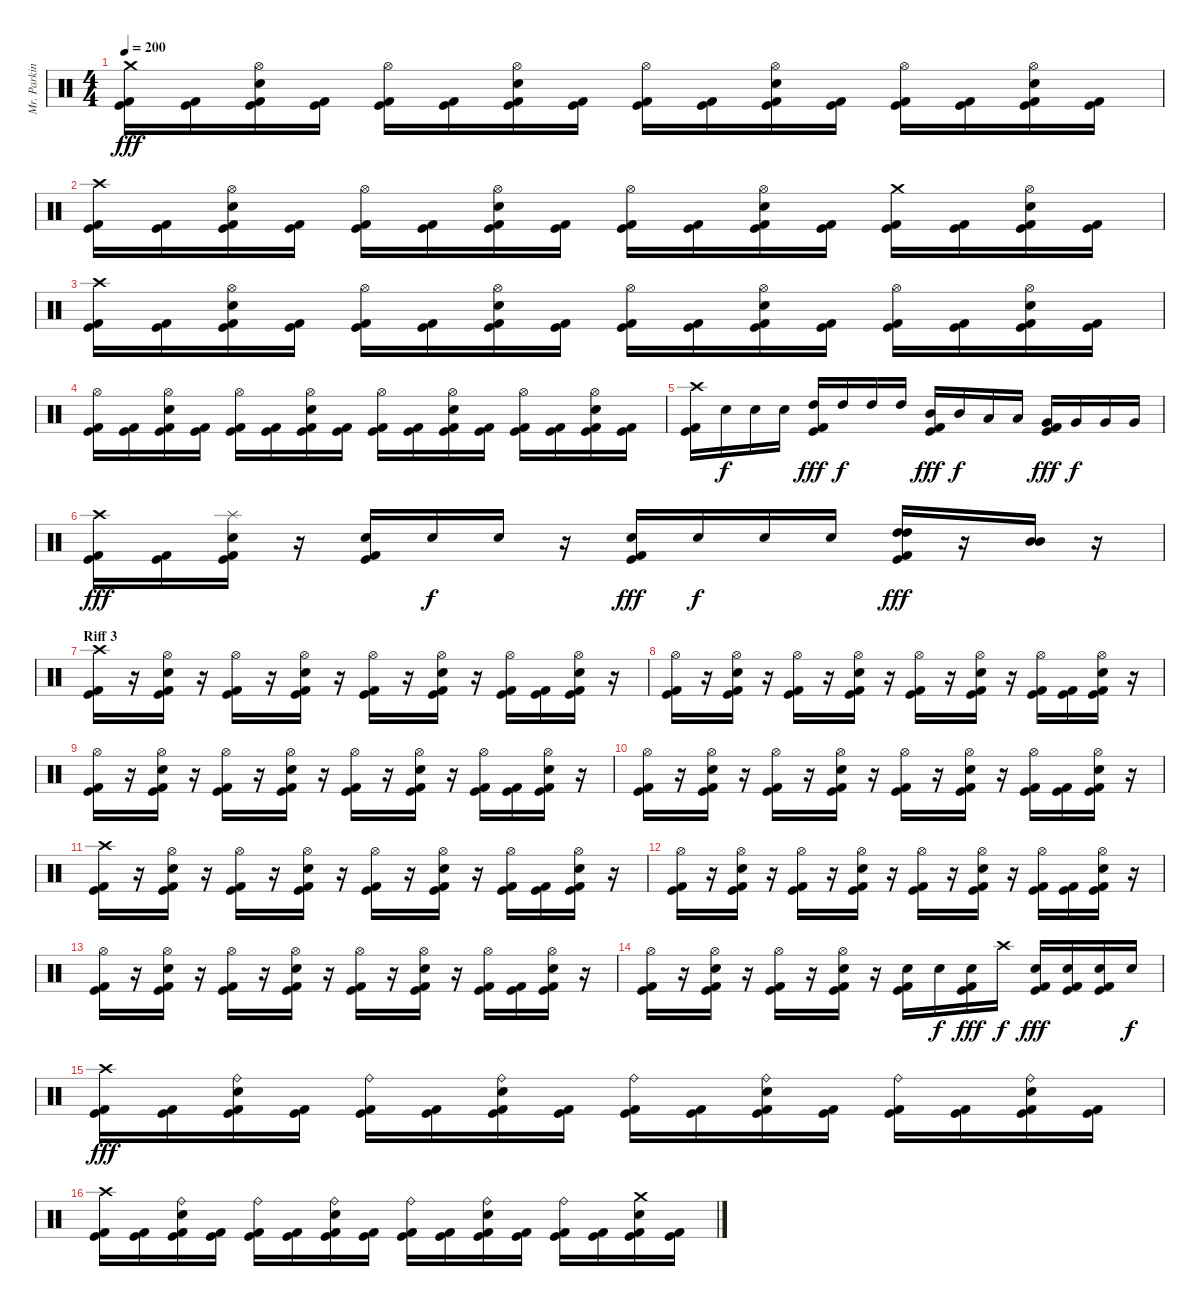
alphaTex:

\track ("Mr. Parkinson" "Mr. Parkin") {instrument percussion}
\staff {score}
\articulation defaults
\ts (4 4)
\tempo 200
\clef neutral
\ks c
("Crash medium (hit)" "Kick (hit)" "Kick (hit) 2").16{dy fff} ("Kick (hit)" "Kick (hit) 2").16 ("Hi-Hat (open)" "Electric Snare (hit)" "Kick (hit)" "Kick (hit) 2").16 ("Kick (hit)" "Kick (hit) 2").16 ("Hi-Hat (open)" "Kick (hit)" "Kick (hit) 2").16 ("Kick (hit)" "Kick (hit) 2").16 ("Hi-Hat (open)" "Electric Snare (hit)" "Kick (hit)" "Kick (hit) 2").16 ("Kick (hit)" "Kick (hit) 2").16 ("Hi-Hat (open)" "Kick (hit)" "Kick (hit) 2").16 ("Kick (hit)" "Kick (hit) 2").16 ("Hi-Hat (open)" "Electric Snare (hit)" "Kick (hit)" "Kick (hit) 2").16 ("Kick (hit)" "Kick (hit) 2").16 ("Hi-Hat (open)" "Kick (hit)" "Kick (hit) 2").16 ("Kick (hit)" "Kick (hit) 2").16 ("Hi-Hat (open)" "Electric Snare (hit)" "Kick (hit)" "Kick (hit) 2").16 ("Kick (hit)" "Kick (hit) 2").16 |
("Crash high (hit)" "Kick (hit)" "Kick (hit) 2").16 ("Kick (hit)" "Kick (hit) 2").16 ("Hi-Hat (open)" "Electric Snare (hit)" "Kick (hit)" "Kick (hit) 2").16 ("Kick (hit)" "Kick (hit) 2").16 ("Hi-Hat (open)" "Kick (hit)" "Kick (hit) 2").16 ("Kick (hit)" "Kick (hit) 2").16 ("Hi-Hat (open)" "Electric Snare (hit)" "Kick (hit)" "Kick (hit) 2").16 ("Kick (hit)" "Kick (hit) 2").16 ("Hi-Hat (open)" "Kick (hit)" "Kick (hit) 2").16 ("Kick (hit)" "Kick (hit) 2").16 ("Hi-Hat (open)" "Electric Snare (hit)" "Kick (hit)" "Kick (hit) 2").16 ("Kick (hit)" "Kick (hit) 2").16 ("Crash medium (hit)" "Kick (hit)" "Kick (hit) 2").16 ("Kick (hit)" "Kick (hit) 2").16 ("Hi-Hat (open)" "Electric Snare (hit)" "Kick (hit)" "Kick (hit) 2").16 ("Kick (hit)" "Kick (hit) 2").16 |
("Crash high (hit)" "Kick (hit)" "Kick (hit) 2").16 ("Kick (hit)" "Kick (hit) 2").16 ("Hi-Hat (open)" "Electric Snare (hit)" "Kick (hit)" "Kick (hit) 2").16 ("Kick (hit)" "Kick (hit) 2").16 ("Hi-Hat (open)" "Kick (hit)" "Kick (hit) 2").16 ("Kick (hit)" "Kick (hit) 2").16 ("Hi-Hat (open)" "Electric Snare (hit)" "Kick (hit)" "Kick (hit) 2").16 ("Kick (hit)" "Kick (hit) 2").16 ("Hi-Hat (open)" "Kick (hit)" "Kick (hit) 2").16 ("Kick (hit)" "Kick (hit) 2").16 ("Hi-Hat (open)" "Electric Snare (hit)" "Kick (hit)" "Kick (hit) 2").16 ("Kick (hit)" "Kick (hit) 2").16 ("Hi-Hat (open)" "Kick (hit)" "Kick (hit) 2").16 ("Kick (hit)" "Kick (hit) 2").16 ("Hi-Hat (open)" "Electric Snare (hit)" "Kick (hit)" "Kick (hit) 2").16 ("Kick (hit)" "Kick (hit) 2").16 |
("Hi-Hat (open)" "Kick (hit)" "Kick (hit) 2").16 ("Kick (hit)" "Kick (hit) 2").16 ("Hi-Hat (open)" "Electric Snare (hit)" "Kick (hit)" "Kick (hit) 2").16 ("Kick (hit)" "Kick (hit) 2").16 ("Hi-Hat (open)" "Kick (hit)" "Kick (hit) 2").16 ("Kick (hit)" "Kick (hit) 2").16 ("Hi-Hat (open)" "Electric Snare (hit)" "Kick (hit)" "Kick (hit) 2").16 ("Kick (hit)" "Kick (hit) 2").16 ("Hi-Hat (open)" "Kick (hit)" "Kick (hit) 2").16 ("Kick (hit)" "Kick (hit) 2").16 ("Hi-Hat (open)" "Electric Snare (hit)" "Kick (hit)" "Kick (hit) 2").16 ("Kick (hit)" "Kick (hit) 2").16 ("Hi-Hat (open)" "Kick (hit)" "Kick (hit) 2").16 ("Kick (hit)" "Kick (hit) 2").16 ("Hi-Hat (open)" "Electric Snare (hit)" "Kick (hit)" "Kick (hit) 2").16 ("Kick (hit)" "Kick (hit) 2").16 |
("Crash high (hit)" "Kick (hit)" "Kick (hit) 2").16 "Electric Snare (hit)".16{dy f} "Electric Snare (hit)".16 "Electric Snare (hit)".16 ("High Tom (hit)" "Kick (hit)" "Kick (hit) 2").16{dy fff} "High Tom (hit)".16{dy f} "High Tom (hit)".16 "High Tom (hit)".16 ("Mid Tom (hit)" "Kick (hit)" "Kick (hit) 2").16{dy fff} "Mid Tom (hit)".16{dy f} "Low Tom (hit)".16 "Low Tom (hit)".16 ("Very Low Tom (hit)" "Kick (hit)" "Kick (hit) 2").16{dy fff} "Very Low Tom (hit)".16{dy f} "Very Low Tom (hit)".16 "Very Low Tom (hit)".16 |
("Crash high (hit)" "Kick (hit)" "Kick (hit) 2").16{dy fff} ("Kick (hit)" "Kick (hit) 2").16 ("Splash (hit)" "Electric Snare (hit)" "Kick (hit)" "Kick (hit) 2").16 r.16 ("Electric Snare (hit)" "Kick (hit)" "Kick (hit) 2").16 "Electric Snare (hit)".16{dy f} "Electric Snare (hit)".16 r.16 ("Electric Snare (hit)" "Kick (hit)" "Kick (hit) 2").16{dy fff} "Electric Snare (hit)".16{dy f} "Electric Snare (hit)".16 "Electric Snare (hit)".16 ("High Tom (hit)" "High Tom (hit)" "Kick (hit)" "Kick (hit) 2").16{dy fff} r.16 ("Mid Tom (hit)" "Mid Tom (hit)").16 r.16 |
\section ("" "Riff 3")
("Crash high (hit)" "Kick (hit)" "Kick (hit) 2").16 r.16 ("Hi-Hat (open)" "Electric Snare (hit)" "Kick (hit)" "Kick (hit) 2").16 r.16 ("Hi-Hat (open)" "Kick (hit)" "Kick (hit) 2").16 r.16 ("Hi-Hat (open)" "Electric Snare (hit)" "Kick (hit)" "Kick (hit) 2").16 r.16 ("Hi-Hat (open)" "Kick (hit)" "Kick (hit) 2").16 r.16 ("Hi-Hat (open)" "Electric Snare (hit)" "Kick (hit)" "Kick (hit) 2").16 r.16 ("Hi-Hat (open)" "Kick (hit)" "Kick (hit) 2").16 ("Kick (hit)" "Kick (hit) 2").16 ("Hi-Hat (open)" "Electric Snare (hit)" "Kick (hit)" "Kick (hit) 2").16 r.16 |
("Hi-Hat (open)" "Kick (hit)" "Kick (hit) 2").16 r.16 ("Hi-Hat (open)" "Electric Snare (hit)" "Kick (hit)" "Kick (hit) 2").16 r.16 ("Hi-Hat (open)" "Kick (hit)" "Kick (hit) 2").16 r.16 ("Hi-Hat (open)" "Electric Snare (hit)" "Kick (hit)" "Kick (hit) 2").16 r.16 ("Hi-Hat (open)" "Kick (hit)" "Kick (hit) 2").16 r.16 ("Hi-Hat (open)" "Electric Snare (hit)" "Kick (hit)" "Kick (hit) 2").16 r.16 ("Hi-Hat (open)" "Kick (hit)" "Kick (hit) 2").16 ("Kick (hit)" "Kick (hit) 2").16 ("Hi-Hat (open)" "Electric Snare (hit)" "Kick (hit)" "Kick (hit) 2").16 r.16 |
("Hi-Hat (open)" "Kick (hit)" "Kick (hit) 2").16 r.16 ("Hi-Hat (open)" "Electric Snare (hit)" "Kick (hit)" "Kick (hit) 2").16 r.16 ("Hi-Hat (open)" "Kick (hit)" "Kick (hit) 2").16 r.16 ("Hi-Hat (open)" "Electric Snare (hit)" "Kick (hit)" "Kick (hit) 2").16 r.16 ("Hi-Hat (open)" "Kick (hit)" "Kick (hit) 2").16 r.16 ("Hi-Hat (open)" "Electric Snare (hit)" "Kick (hit)" "Kick (hit) 2").16 r.16 ("Hi-Hat (open)" "Kick (hit)" "Kick (hit) 2").16 ("Kick (hit)" "Kick (hit) 2").16 ("Hi-Hat (open)" "Electric Snare (hit)" "Kick (hit)" "Kick (hit) 2").16 r.16 |
("Hi-Hat (open)" "Kick (hit)" "Kick (hit) 2").16 r.16 ("Hi-Hat (open)" "Electric Snare (hit)" "Kick (hit)" "Kick (hit) 2").16 r.16 ("Hi-Hat (open)" "Kick (hit)" "Kick (hit) 2").16 r.16 ("Hi-Hat (open)" "Electric Snare (hit)" "Kick (hit)" "Kick (hit) 2").16 r.16 ("Hi-Hat (open)" "Kick (hit)" "Kick (hit) 2").16 r.16 ("Hi-Hat (open)" "Electric Snare (hit)" "Kick (hit)" "Kick (hit) 2").16 r.16 ("Hi-Hat (open)" "Kick (hit)" "Kick (hit) 2").16 ("Kick (hit)" "Kick (hit) 2").16 ("Hi-Hat (open)" "Electric Snare (hit)" "Kick (hit)" "Kick (hit) 2").16 r.16 |
("Crash high (hit)" "Kick (hit)" "Kick (hit) 2").16 r.16 ("Hi-Hat (open)" "Electric Snare (hit)" "Kick (hit)" "Kick (hit) 2").16 r.16 ("Hi-Hat (open)" "Kick (hit)" "Kick (hit) 2").16 r.16 ("Hi-Hat (open)" "Electric Snare (hit)" "Kick (hit)" "Kick (hit) 2").16 r.16 ("Hi-Hat (open)" "Kick (hit)" "Kick (hit) 2").16 r.16 ("Hi-Hat (open)" "Electric Snare (hit)" "Kick (hit)" "Kick (hit) 2").16 r.16 ("Hi-Hat (open)" "Kick (hit)" "Kick (hit) 2").16 ("Kick (hit)" "Kick (hit) 2").16 ("Hi-Hat (open)" "Electric Snare (hit)" "Kick (hit)" "Kick (hit) 2").16 r.16 |
("Hi-Hat (open)" "Kick (hit)" "Kick (hit) 2").16 r.16 ("Hi-Hat (open)" "Electric Snare (hit)" "Kick (hit)" "Kick (hit) 2").16 r.16 ("Hi-Hat (open)" "Kick (hit)" "Kick (hit) 2").16 r.16 ("Hi-Hat (open)" "Electric Snare (hit)" "Kick (hit)" "Kick (hit) 2").16 r.16 ("Hi-Hat (open)" "Kick (hit)" "Kick (hit) 2").16 r.16 ("Hi-Hat (open)" "Electric Snare (hit)" "Kick (hit)" "Kick (hit) 2").16 r.16 ("Hi-Hat (open)" "Kick (hit)" "Kick (hit) 2").16 ("Kick (hit)" "Kick (hit) 2").16 ("Hi-Hat (open)" "Electric Snare (hit)" "Kick (hit)" "Kick (hit) 2").16 r.16 |
("Hi-Hat (open)" "Kick (hit)" "Kick (hit) 2").16 r.16 ("Hi-Hat (open)" "Electric Snare (hit)" "Kick (hit)" "Kick (hit) 2").16 r.16 ("Hi-Hat (open)" "Kick (hit)" "Kick (hit) 2").16 r.16 ("Hi-Hat (open)" "Electric Snare (hit)" "Kick (hit)" "Kick (hit) 2").16 r.16 ("Hi-Hat (open)" "Kick (hit)" "Kick (hit) 2").16 r.16 ("Hi-Hat (open)" "Electric Snare (hit)" "Kick (hit)" "Kick (hit) 2").16 r.16 ("Hi-Hat (open)" "Kick (hit)" "Kick (hit) 2").16 ("Kick (hit)" "Kick (hit) 2").16 ("Hi-Hat (open)" "Electric Snare (hit)" "Kick (hit)" "Kick (hit) 2").16 r.16 |
("Hi-Hat (open)" "Kick (hit)" "Kick (hit) 2").16 r.16 ("Hi-Hat (open)" "Electric Snare (hit)" "Kick (hit)" "Kick (hit) 2").16 r.16 ("Hi-Hat (open)" "Kick (hit)" "Kick (hit) 2").16 r.16 ("Hi-Hat (open)" "Electric Snare (hit)" "Kick (hit)" "Kick (hit) 2").16 r.16 ("Electric Snare (hit)" "Kick (hit)" "Kick (hit) 2").16 "Electric Snare (hit)".16{dy f} ("Electric Snare (hit)" "Kick (hit)" "Kick (hit) 2").16{dy fff} "Crash high (hit)".16{dy f} ("Electric Snare (hit)" "Kick (hit)" "Kick (hit) 2").16{dy fff} ("Electric Snare (hit)" "Kick (hit)" "Kick (hit) 2").16 ("Electric Snare (hit)" "Kick (hit)" "Kick (hit) 2").16 "Electric Snare (hit)".16{dy f} |
("Crash high (hit)" "Kick (hit)" "Kick (hit) 2").16{dy fff} ("Kick (hit)" "Kick (hit) 2").16 ("Ride (bell)" "Electric Snare (hit)" "Kick (hit)" "Kick (hit) 2").16 ("Kick (hit)" "Kick (hit) 2").16 ("Ride (bell)" "Kick (hit)" "Kick (hit) 2").16 ("Kick (hit)" "Kick (hit) 2").16 ("Ride (bell)" "Electric Snare (hit)" "Kick (hit)" "Kick (hit) 2").16 ("Kick (hit)" "Kick (hit) 2").16 ("Ride (bell)" "Kick (hit)" "Kick (hit) 2").16 ("Kick (hit)" "Kick (hit) 2").16 ("Ride (bell)" "Electric Snare (hit)" "Kick (hit)" "Kick (hit) 2").16 ("Kick (hit)" "Kick (hit) 2").16 ("Ride (bell)" "Kick (hit)" "Kick (hit) 2").16 ("Kick (hit)" "Kick (hit) 2").16 ("Ride (bell)" "Electric Snare (hit)" "Kick (hit)" "Kick (hit) 2").16 ("Kick (hit)" "Kick (hit) 2").16 |
("Crash high (hit)" "Kick (hit)" "Kick (hit) 2").16 ("Kick (hit)" "Kick (hit) 2").16 ("Ride (bell)" "Electric Snare (hit)" "Kick (hit)" "Kick (hit) 2").16 ("Kick (hit)" "Kick (hit) 2").16 ("Ride (bell)" "Kick (hit)" "Kick (hit) 2").16 ("Kick (hit)" "Kick (hit) 2").16 ("Ride (bell)" "Electric Snare (hit)" "Kick (hit)" "Kick (hit) 2").16 ("Kick (hit)" "Kick (hit) 2").16 ("Ride (bell)" "Kick (hit)" "Kick (hit) 2").16 ("Kick (hit)" "Kick (hit) 2").16 ("Ride (bell)" "Electric Snare (hit)" "Kick (hit)" "Kick (hit) 2").16 ("Kick (hit)" "Kick (hit) 2").16 ("Ride (bell)" "Kick (hit)" "Kick (hit) 2").16 ("Kick (hit)" "Kick (hit) 2").16 ("Crash medium (hit)" "Electric Snare (hit)" "Kick (hit)" "Kick (hit) 2").16 ("Kick (hit)" "Kick (hit) 2").16
